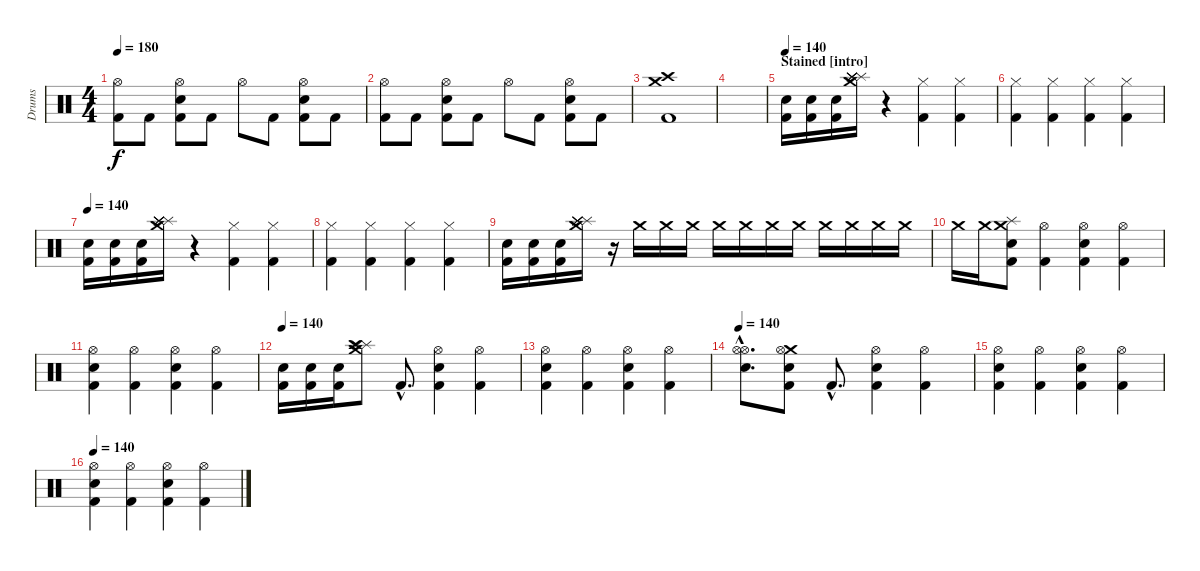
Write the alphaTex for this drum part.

\track ("Drums" "Drums") {instrument percussion}
\staff {score}
\articulation defaults
\ts (4 4)
\tempo 180
\clef neutral
\ks c
("Hi-Hat (open)" "Kick (hit) 2").8{dy f} "Kick (hit) 2".8 ("Electric Snare (hit)" "Hi-Hat (open)" "Kick (hit) 2").8 "Kick (hit) 2".8 "Hi-Hat (open)".8 "Kick (hit) 2".8 ("Electric Snare (hit)" "Hi-Hat (open)" "Kick (hit) 2").8 "Kick (hit) 2".8 |
("Hi-Hat (open)" "Kick (hit) 2").8 "Kick (hit) 2".8 ("Electric Snare (hit)" "Hi-Hat (open)" "Kick (hit) 2").8 "Kick (hit) 2".8 "Hi-Hat (open)".8 "Kick (hit) 2".8 ("Electric Snare (hit)" "Hi-Hat (open)" "Kick (hit) 2").8 "Kick (hit) 2".8 |
("Kick (hit) 2" "Crash high (hit)" "Crash medium (hit)").1 |
|
\section ("" "Stained [intro]")
\tempo 140
("Electric Snare (hit)" "Kick (hit) 2").16 ("Electric Snare (hit)" "Kick (hit) 2").16 ("Electric Snare (hit)" "Kick (hit) 2").16 ("Crash medium (hit)" "Splash (hit)" "Splash (hit)" "Splash (hit)" "Splash (hit)" "Splash (hit)").16 r.4 ("Hi-Hat (closed)" "Kick (hit) 2").4 ("Hi-Hat (closed)" "Kick (hit) 2").4 |
("Hi-Hat (closed)" "Kick (hit) 2").4 ("Hi-Hat (closed)" "Kick (hit) 2").4 ("Hi-Hat (closed)" "Kick (hit) 2").4 ("Hi-Hat (closed)" "Kick (hit) 2").4 |
\tempo 140
("Electric Snare (hit)" "Kick (hit) 2").16 ("Electric Snare (hit)" "Kick (hit) 2").16 ("Electric Snare (hit)" "Kick (hit) 2").16 ("Crash medium (hit)" "Splash (hit)" "Splash (hit)" "Splash (hit)" "Splash (hit)" "Splash (hit)").16 r.4 ("Hi-Hat (closed)" "Kick (hit) 2").4 ("Hi-Hat (closed)" "Kick (hit) 2").4 |
("Hi-Hat (closed)" "Kick (hit) 2").4 ("Hi-Hat (closed)" "Kick (hit) 2").4 ("Hi-Hat (closed)" "Kick (hit) 2").4 ("Hi-Hat (closed)" "Kick (hit) 2").4 |
("Electric Snare (hit)" "Kick (hit) 2").16 ("Electric Snare (hit)" "Kick (hit) 2").16 ("Electric Snare (hit)" "Kick (hit) 2").16 ("Crash medium (hit)" "Splash (hit)" "Splash (hit)" "Splash (hit)" "Splash (hit)" "Splash (hit)").16 r.16 "Crash medium (hit)".16{volume 2} "Crash medium (hit)".16{volume 3} "Crash medium (hit)".16{volume 4} "Crash medium (hit)".16{volume 5} "Crash medium (hit)".16{volume 6} "Crash medium (hit)".16{volume 7} "Crash medium (hit)".16{volume 8} "Crash medium (hit)".16{volume 9} "Crash medium (hit)".16{volume 10} "Crash medium (hit)".16{volume 11} "Crash medium (hit)".16{volume 12} |
"Crash medium (hit)".16{volume 13} "Crash medium (hit)".16{volume 14} ("Crash medium (hit)" "Splash (hit)" "Electric Snare (hit)" "Kick (hit) 2").8{volume 12} ("Hi-Hat (open)" "Kick (hit) 2").4 ("Hi-Hat (open)" "Electric Snare (hit)" "Kick (hit) 2").4 ("Hi-Hat (open)" "Kick (hit) 2").4 |
("Hi-Hat (open)" "Electric Snare (hit)" "Kick (hit) 2").4 ("Hi-Hat (open)" "Kick (hit) 2").4 ("Hi-Hat (open)" "Electric Snare (hit)" "Kick (hit) 2").4 ("Hi-Hat (open)" "Kick (hit) 2").4 |
\tempo 140
("Electric Snare (hit)" "Kick (hit) 2").16 ("Electric Snare (hit)" "Kick (hit) 2").16 ("Electric Snare (hit)" "Kick (hit) 2").16 ("Crash medium (hit)" "Splash (hit)" "Splash (hit)" "Crash high (hit)").8 "Kick (hit) 2"{hac}.8{d} ("Hi-Hat (open)" "Electric Snare (hit)" "Kick (hit) 2").4 ("Hi-Hat (open)" "Kick (hit) 2").4 |
("Hi-Hat (open)" "Electric Snare (hit)" "Kick (hit) 2").4 ("Hi-Hat (open)" "Kick (hit) 2").4 ("Hi-Hat (open)" "Electric Snare (hit)" "Kick (hit) 2").4 ("Hi-Hat (open)" "Kick (hit) 2").4 |
\tempo 140
("Hi-Hat (open)"{hac} "Electric Snare (hit)"{hac} "Hi-Hat (open)"{hac}).8{d} ("Crash medium (hit)" "Hi-Hat (open)" "Electric Snare (hit)" "Kick (hit) 2").8 "Kick (hit) 2"{hac}.8{d} ("Hi-Hat (open)" "Electric Snare (hit)" "Kick (hit) 2").4 ("Hi-Hat (open)" "Kick (hit) 2").4 |
("Hi-Hat (open)" "Electric Snare (hit)" "Kick (hit) 2").4 ("Hi-Hat (open)" "Kick (hit) 2").4 ("Hi-Hat (open)" "Electric Snare (hit)" "Kick (hit) 2").4 ("Hi-Hat (open)" "Kick (hit) 2").4 |
\tempo 140
("Hi-Hat (open)" "Electric Snare (hit)" "Kick (hit) 2").4 ("Hi-Hat (open)" "Kick (hit) 2").4 ("Hi-Hat (open)" "Electric Snare (hit)" "Kick (hit) 2").4 ("Hi-Hat (open)" "Kick (hit) 2").4
